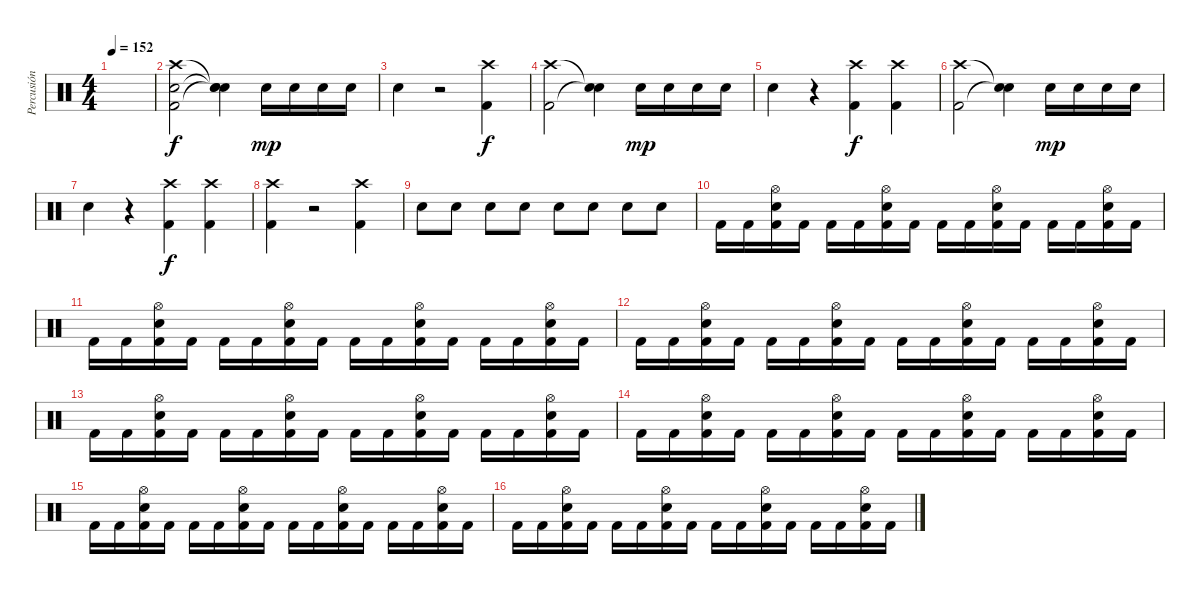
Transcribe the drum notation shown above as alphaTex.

\track ("Percusión" "Percusión") {instrument percussion}
\staff {score}
\articulation defaults
\ts (4 4)
\tempo 152
\clef neutral
\ks c
|
("Crash high (hit)" "Snare (hit) 2" "Kick (hit) 2").2 ("Snare (hit)"{t} "Snare (hit)"{t} "Snare (hit)"{t}).4 "Snare (hit) 2".16{dy mp} "Snare (hit) 2".16 "Snare (hit) 2".16 "Snare (hit) 2".16 |
"Snare (hit) 2".4 r.2 ("Crash high (hit)" "Kick (hit) 2").4{dy f} |
("Crash high (hit)" "Kick (hit) 2").2 ("Snare (hit)"{t} "Snare (hit)"{t}).4 "Snare (hit) 2".16{dy mp} "Snare (hit) 2".16 "Snare (hit) 2".16 "Snare (hit) 2".16 |
"Snare (hit) 2".4 r.4 ("Crash high (hit)" "Kick (hit) 2").4{dy f} ("Crash high (hit)" "Kick (hit) 2").4 |
("Crash high (hit)" "Kick (hit) 2").2 ("Snare (hit)"{t} "Snare (hit)"{t}).4 "Snare (hit) 2".16{dy mp} "Snare (hit) 2".16 "Snare (hit) 2".16 "Snare (hit) 2".16 |
"Snare (hit) 2".4 r.4 ("Crash high (hit)" "Kick (hit) 2").4{dy f} ("Crash high (hit)" "Kick (hit) 2").4 |
("Crash high (hit)" "Kick (hit) 2").4 r.2 ("Crash high (hit)" "Kick (hit) 2").4 |
"Snare (hit) 2".8 "Snare (hit) 2".8 "Snare (hit) 2".8 "Snare (hit) 2".8 "Snare (hit) 2".8 "Snare (hit) 2".8 "Snare (hit) 2".8 "Snare (hit) 2".8 |
"Kick (hit) 2".16 "Kick (hit) 2".16 ("Hi-Hat (open)" "Snare (hit) 2" "Kick (hit) 2").16 "Kick (hit) 2".16 "Kick (hit) 2".16 "Kick (hit) 2".16 ("Hi-Hat (open)" "Snare (hit) 2" "Kick (hit) 2").16 "Kick (hit) 2".16 "Kick (hit) 2".16 "Kick (hit) 2".16 ("Hi-Hat (open)" "Snare (hit) 2" "Kick (hit) 2").16 "Kick (hit) 2".16 "Kick (hit) 2".16 "Kick (hit) 2".16 ("Hi-Hat (open)" "Snare (hit) 2" "Kick (hit) 2").16 "Kick (hit) 2".16 |
"Kick (hit) 2".16 "Kick (hit) 2".16 ("Hi-Hat (open)" "Snare (hit) 2" "Kick (hit) 2").16 "Kick (hit) 2".16 "Kick (hit) 2".16 "Kick (hit) 2".16 ("Hi-Hat (open)" "Snare (hit) 2" "Kick (hit) 2").16 "Kick (hit) 2".16 "Kick (hit) 2".16 "Kick (hit) 2".16 ("Hi-Hat (open)" "Snare (hit) 2" "Kick (hit) 2").16 "Kick (hit) 2".16 "Kick (hit) 2".16 "Kick (hit) 2".16 ("Hi-Hat (open)" "Snare (hit) 2" "Kick (hit) 2").16 "Kick (hit) 2".16 |
"Kick (hit) 2".16 "Kick (hit) 2".16 ("Hi-Hat (open)" "Snare (hit) 2" "Kick (hit) 2").16 "Kick (hit) 2".16 "Kick (hit) 2".16 "Kick (hit) 2".16 ("Hi-Hat (open)" "Snare (hit) 2" "Kick (hit) 2").16 "Kick (hit) 2".16 "Kick (hit) 2".16 "Kick (hit) 2".16 ("Hi-Hat (open)" "Snare (hit) 2" "Kick (hit) 2").16 "Kick (hit) 2".16 "Kick (hit) 2".16 "Kick (hit) 2".16 ("Hi-Hat (open)" "Snare (hit) 2" "Kick (hit) 2").16 "Kick (hit) 2".16 |
"Kick (hit) 2".16 "Kick (hit) 2".16 ("Hi-Hat (open)" "Snare (hit) 2" "Kick (hit) 2").16 "Kick (hit) 2".16 "Kick (hit) 2".16 "Kick (hit) 2".16 ("Hi-Hat (open)" "Snare (hit) 2" "Kick (hit) 2").16 "Kick (hit) 2".16 "Kick (hit) 2".16 "Kick (hit) 2".16 ("Hi-Hat (open)" "Snare (hit) 2" "Kick (hit) 2").16 "Kick (hit) 2".16 "Kick (hit) 2".16 "Kick (hit) 2".16 ("Hi-Hat (open)" "Snare (hit) 2" "Kick (hit) 2").16 "Kick (hit) 2".16 |
"Kick (hit) 2".16 "Kick (hit) 2".16 ("Hi-Hat (open)" "Snare (hit) 2" "Kick (hit) 2").16 "Kick (hit) 2".16 "Kick (hit) 2".16 "Kick (hit) 2".16 ("Hi-Hat (open)" "Snare (hit) 2" "Kick (hit) 2").16 "Kick (hit) 2".16 "Kick (hit) 2".16 "Kick (hit) 2".16 ("Hi-Hat (open)" "Snare (hit) 2" "Kick (hit) 2").16 "Kick (hit) 2".16 "Kick (hit) 2".16 "Kick (hit) 2".16 ("Hi-Hat (open)" "Snare (hit) 2" "Kick (hit) 2").16 "Kick (hit) 2".16 |
"Kick (hit) 2".16 "Kick (hit) 2".16 ("Hi-Hat (open)" "Snare (hit) 2" "Kick (hit) 2").16 "Kick (hit) 2".16 "Kick (hit) 2".16 "Kick (hit) 2".16 ("Hi-Hat (open)" "Snare (hit) 2" "Kick (hit) 2").16 "Kick (hit) 2".16 "Kick (hit) 2".16 "Kick (hit) 2".16 ("Hi-Hat (open)" "Snare (hit) 2" "Kick (hit) 2").16 "Kick (hit) 2".16 "Kick (hit) 2".16 "Kick (hit) 2".16 ("Hi-Hat (open)" "Snare (hit) 2" "Kick (hit) 2").16 "Kick (hit) 2".16 |
"Kick (hit) 2".16 "Kick (hit) 2".16 ("Hi-Hat (open)" "Snare (hit) 2" "Kick (hit) 2").16 "Kick (hit) 2".16 "Kick (hit) 2".16 "Kick (hit) 2".16 ("Hi-Hat (open)" "Snare (hit) 2" "Kick (hit) 2").16 "Kick (hit) 2".16 "Kick (hit) 2".16 "Kick (hit) 2".16 ("Hi-Hat (open)" "Snare (hit) 2" "Kick (hit) 2").16 "Kick (hit) 2".16 "Kick (hit) 2".16 "Kick (hit) 2".16 ("Hi-Hat (open)" "Snare (hit) 2" "Kick (hit) 2").16 "Kick (hit) 2".16
